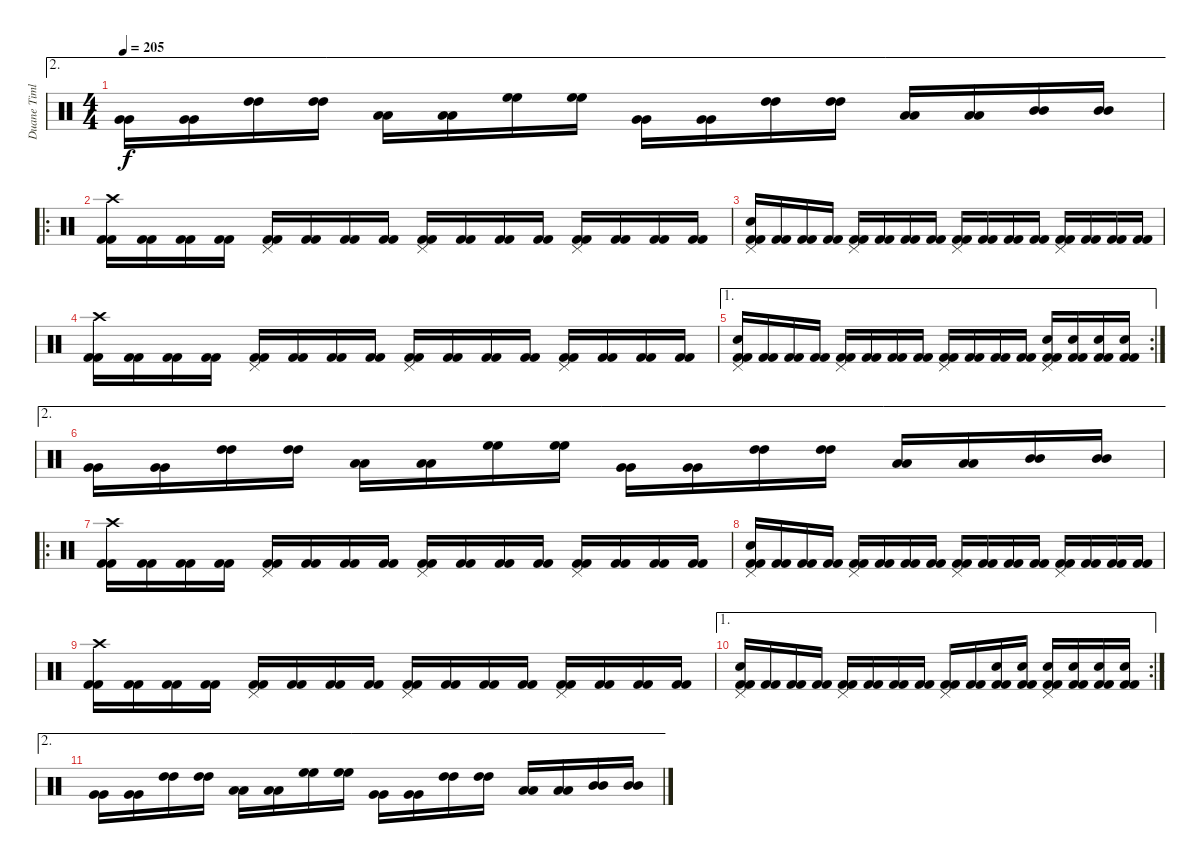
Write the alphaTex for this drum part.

\track ("Duane Timlin" "Duane Timl") {instrument percussion}
\staff {score}
\articulation defaults
\ae 2
\ts (4 4)
\tempo 205
\clef neutral
\ks c
("Very Low Tom (hit)" "Very Low Tom (hit)").16{dy f} ("Very Low Tom (hit)" "Very Low Tom (hit)").16 ("High Tom (hit)" "High Tom (hit)").16 ("High Tom (hit)" "High Tom (hit)").16 ("Low Tom (hit)" "Low Tom (hit)").16 ("Low Tom (hit)" "Low Tom (hit)").16 ("High Floor Tom (hit)" "High Floor Tom (hit)").16 ("High Floor Tom (hit)" "High Floor Tom (hit)").16 ("Very Low Tom (hit)" "Very Low Tom (hit)").16 ("Very Low Tom (hit)" "Very Low Tom (hit)").16 ("High Tom (hit)" "High Tom (hit)").16 ("High Tom (hit)" "High Tom (hit)").16 ("Low Floor Tom (hit)" "Low Floor Tom (hit)").16 ("Low Floor Tom (hit)" "Low Floor Tom (hit)").16 ("Mid Tom (hit)" "Mid Tom (hit)").16 ("Mid Tom (hit)" "Mid Tom (hit)").16 |
\ro
("Crash high (hit)" "Kick (hit) 2" "Kick (hit) 2").16 ("Kick (hit) 2" "Kick (hit) 2").16 ("Kick (hit) 2" "Kick (hit) 2").16 ("Kick (hit) 2" "Kick (hit) 2").16 ("Pedal Hi-Hat (hit)" "Kick (hit) 2" "Kick (hit) 2").16 ("Kick (hit) 2" "Kick (hit) 2").16 ("Kick (hit) 2" "Kick (hit) 2").16 ("Kick (hit) 2" "Kick (hit) 2").16 ("Pedal Hi-Hat (hit)" "Kick (hit) 2" "Kick (hit) 2").16 ("Kick (hit) 2" "Kick (hit) 2").16 ("Kick (hit) 2" "Kick (hit) 2").16 ("Kick (hit) 2" "Kick (hit) 2").16 ("Pedal Hi-Hat (hit)" "Kick (hit) 2" "Kick (hit) 2").16 ("Kick (hit) 2" "Kick (hit) 2").16 ("Kick (hit) 2" "Kick (hit) 2").16 ("Kick (hit) 2" "Kick (hit) 2").16 |
("Pedal Hi-Hat (hit)" "Electric Snare (hit)" "Kick (hit) 2" "Kick (hit) 2").16 ("Kick (hit) 2" "Kick (hit) 2").16 ("Kick (hit) 2" "Kick (hit) 2").16 ("Kick (hit) 2" "Kick (hit) 2").16 ("Pedal Hi-Hat (hit)" "Kick (hit) 2" "Kick (hit) 2").16 ("Kick (hit) 2" "Kick (hit) 2").16 ("Kick (hit) 2" "Kick (hit) 2").16 ("Kick (hit) 2" "Kick (hit) 2").16 ("Pedal Hi-Hat (hit)" "Kick (hit) 2" "Kick (hit) 2").16 ("Kick (hit) 2" "Kick (hit) 2").16 ("Kick (hit) 2" "Kick (hit) 2").16 ("Kick (hit) 2" "Kick (hit) 2").16 ("Pedal Hi-Hat (hit)" "Kick (hit) 2" "Kick (hit) 2").16 ("Kick (hit) 2" "Kick (hit) 2").16 ("Kick (hit) 2" "Kick (hit) 2").16 ("Kick (hit) 2" "Kick (hit) 2").16 |
("Crash high (hit)" "Kick (hit) 2" "Kick (hit) 2").16 ("Kick (hit) 2" "Kick (hit) 2").16 ("Kick (hit) 2" "Kick (hit) 2").16 ("Kick (hit) 2" "Kick (hit) 2").16 ("Pedal Hi-Hat (hit)" "Kick (hit) 2" "Kick (hit) 2").16 ("Kick (hit) 2" "Kick (hit) 2").16 ("Kick (hit) 2" "Kick (hit) 2").16 ("Kick (hit) 2" "Kick (hit) 2").16 ("Pedal Hi-Hat (hit)" "Kick (hit) 2" "Kick (hit) 2").16 ("Kick (hit) 2" "Kick (hit) 2").16 ("Kick (hit) 2" "Kick (hit) 2").16 ("Kick (hit) 2" "Kick (hit) 2").16 ("Pedal Hi-Hat (hit)" "Kick (hit) 2" "Kick (hit) 2").16 ("Kick (hit) 2" "Kick (hit) 2").16 ("Kick (hit) 2" "Kick (hit) 2").16 ("Kick (hit) 2" "Kick (hit) 2").16 |
\ae 1
\rc 2
("Pedal Hi-Hat (hit)" "Electric Snare (hit)" "Kick (hit) 2" "Kick (hit) 2").16 ("Kick (hit) 2" "Kick (hit) 2").16 ("Kick (hit) 2" "Kick (hit) 2").16 ("Kick (hit) 2" "Kick (hit) 2").16 ("Pedal Hi-Hat (hit)" "Kick (hit) 2" "Kick (hit) 2").16 ("Kick (hit) 2" "Kick (hit) 2").16 ("Kick (hit) 2" "Kick (hit) 2").16 ("Kick (hit) 2" "Kick (hit) 2").16 ("Pedal Hi-Hat (hit)" "Kick (hit) 2" "Kick (hit) 2").16 ("Kick (hit) 2" "Kick (hit) 2").16 ("Kick (hit) 2" "Kick (hit) 2").16 ("Kick (hit) 2" "Kick (hit) 2").16 ("Pedal Hi-Hat (hit)" "Electric Snare (hit)" "Kick (hit) 2" "Kick (hit) 2").16 ("Electric Snare (hit)" "Kick (hit) 2" "Kick (hit) 2").16 ("Electric Snare (hit)" "Kick (hit) 2" "Kick (hit) 2").16 ("Electric Snare (hit)" "Kick (hit) 2" "Kick (hit) 2").16 |
\ae 2
("Very Low Tom (hit)" "Very Low Tom (hit)").16 ("Very Low Tom (hit)" "Very Low Tom (hit)").16 ("High Tom (hit)" "High Tom (hit)").16 ("High Tom (hit)" "High Tom (hit)").16 ("Low Tom (hit)" "Low Tom (hit)").16 ("Low Tom (hit)" "Low Tom (hit)").16 ("High Floor Tom (hit)" "High Floor Tom (hit)").16 ("High Floor Tom (hit)" "High Floor Tom (hit)").16 ("Very Low Tom (hit)" "Very Low Tom (hit)").16 ("Very Low Tom (hit)" "Very Low Tom (hit)").16 ("High Tom (hit)" "High Tom (hit)").16 ("High Tom (hit)" "High Tom (hit)").16 ("Low Floor Tom (hit)" "Low Floor Tom (hit)").16 ("Low Floor Tom (hit)" "Low Floor Tom (hit)").16 ("Mid Tom (hit)" "Mid Tom (hit)").16 ("Mid Tom (hit)" "Mid Tom (hit)").16 |
\ro
("Crash high (hit)" "Kick (hit) 2" "Kick (hit) 2").16 ("Kick (hit) 2" "Kick (hit) 2").16 ("Kick (hit) 2" "Kick (hit) 2").16 ("Kick (hit) 2" "Kick (hit) 2").16 ("Pedal Hi-Hat (hit)" "Kick (hit) 2" "Kick (hit) 2").16 ("Kick (hit) 2" "Kick (hit) 2").16 ("Kick (hit) 2" "Kick (hit) 2").16 ("Kick (hit) 2" "Kick (hit) 2").16 ("Pedal Hi-Hat (hit)" "Kick (hit) 2" "Kick (hit) 2").16 ("Kick (hit) 2" "Kick (hit) 2").16 ("Kick (hit) 2" "Kick (hit) 2").16 ("Kick (hit) 2" "Kick (hit) 2").16 ("Pedal Hi-Hat (hit)" "Kick (hit) 2" "Kick (hit) 2").16 ("Kick (hit) 2" "Kick (hit) 2").16 ("Kick (hit) 2" "Kick (hit) 2").16 ("Kick (hit) 2" "Kick (hit) 2").16 |
("Pedal Hi-Hat (hit)" "Electric Snare (hit)" "Kick (hit) 2" "Kick (hit) 2").16 ("Kick (hit) 2" "Kick (hit) 2").16 ("Kick (hit) 2" "Kick (hit) 2").16 ("Kick (hit) 2" "Kick (hit) 2").16 ("Pedal Hi-Hat (hit)" "Kick (hit) 2" "Kick (hit) 2").16 ("Kick (hit) 2" "Kick (hit) 2").16 ("Kick (hit) 2" "Kick (hit) 2").16 ("Kick (hit) 2" "Kick (hit) 2").16 ("Pedal Hi-Hat (hit)" "Kick (hit) 2" "Kick (hit) 2").16 ("Kick (hit) 2" "Kick (hit) 2").16 ("Kick (hit) 2" "Kick (hit) 2").16 ("Kick (hit) 2" "Kick (hit) 2").16 ("Pedal Hi-Hat (hit)" "Kick (hit) 2" "Kick (hit) 2").16 ("Kick (hit) 2" "Kick (hit) 2").16 ("Kick (hit) 2" "Kick (hit) 2").16 ("Kick (hit) 2" "Kick (hit) 2").16 |
("Crash high (hit)" "Kick (hit) 2" "Kick (hit) 2").16 ("Kick (hit) 2" "Kick (hit) 2").16 ("Kick (hit) 2" "Kick (hit) 2").16 ("Kick (hit) 2" "Kick (hit) 2").16 ("Pedal Hi-Hat (hit)" "Kick (hit) 2" "Kick (hit) 2").16 ("Kick (hit) 2" "Kick (hit) 2").16 ("Kick (hit) 2" "Kick (hit) 2").16 ("Kick (hit) 2" "Kick (hit) 2").16 ("Pedal Hi-Hat (hit)" "Kick (hit) 2" "Kick (hit) 2").16 ("Kick (hit) 2" "Kick (hit) 2").16 ("Kick (hit) 2" "Kick (hit) 2").16 ("Kick (hit) 2" "Kick (hit) 2").16 ("Pedal Hi-Hat (hit)" "Kick (hit) 2" "Kick (hit) 2").16 ("Kick (hit) 2" "Kick (hit) 2").16 ("Kick (hit) 2" "Kick (hit) 2").16 ("Kick (hit) 2" "Kick (hit) 2").16 |
\ae 1
\rc 2
("Pedal Hi-Hat (hit)" "Electric Snare (hit)" "Kick (hit) 2" "Kick (hit) 2").16 ("Kick (hit) 2" "Kick (hit) 2").16 ("Kick (hit) 2" "Kick (hit) 2").16 ("Kick (hit) 2" "Kick (hit) 2").16 ("Pedal Hi-Hat (hit)" "Kick (hit) 2" "Kick (hit) 2").16 ("Kick (hit) 2" "Kick (hit) 2").16 ("Kick (hit) 2" "Kick (hit) 2").16 ("Kick (hit) 2" "Kick (hit) 2").16 ("Pedal Hi-Hat (hit)" "Kick (hit) 2" "Kick (hit) 2").16 ("Kick (hit) 2" "Kick (hit) 2").16 ("Electric Snare (hit)" "Kick (hit) 2" "Kick (hit) 2").16 ("Electric Snare (hit)" "Kick (hit) 2" "Kick (hit) 2").16 ("Pedal Hi-Hat (hit)" "Electric Snare (hit)" "Kick (hit) 2" "Kick (hit) 2").16 ("Electric Snare (hit)" "Kick (hit) 2" "Kick (hit) 2").16 ("Electric Snare (hit)" "Kick (hit) 2" "Kick (hit) 2").16 ("Electric Snare (hit)" "Kick (hit) 2" "Kick (hit) 2").16 |
\ae 2
("Very Low Tom (hit)" "Very Low Tom (hit)").16 ("Very Low Tom (hit)" "Very Low Tom (hit)").16 ("High Tom (hit)" "High Tom (hit)").16 ("High Tom (hit)" "High Tom (hit)").16 ("Low Tom (hit)" "Low Tom (hit)").16 ("Low Tom (hit)" "Low Tom (hit)").16 ("High Floor Tom (hit)" "High Floor Tom (hit)").16 ("High Floor Tom (hit)" "High Floor Tom (hit)").16 ("Very Low Tom (hit)" "Very Low Tom (hit)").16 ("Very Low Tom (hit)" "Very Low Tom (hit)").16 ("High Tom (hit)" "High Tom (hit)").16 ("High Tom (hit)" "High Tom (hit)").16 ("Low Floor Tom (hit)" "Low Floor Tom (hit)").16 ("Low Floor Tom (hit)" "Low Floor Tom (hit)").16 ("Mid Tom (hit)" "Mid Tom (hit)").16 ("Mid Tom (hit)" "Mid Tom (hit)").16
